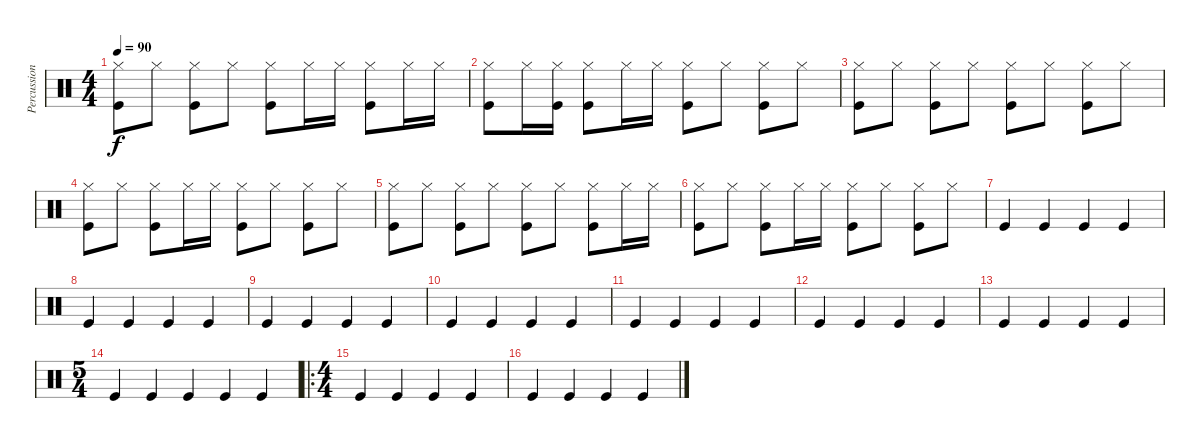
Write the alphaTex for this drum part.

\track ("Percussion" "Percussion") {instrument percussion}
\staff {score}
\articulation defaults
\ts (4 4)
\tempo 90
\clef neutral
\ks c
("Hi-Hat (closed)" "Kick (hit)").8{dy f} "Hi-Hat (closed)".8 ("Hi-Hat (closed)" "Kick (hit)").8 "Hi-Hat (closed)".8 ("Hi-Hat (closed)" "Kick (hit)").8 "Hi-Hat (closed)".16 "Hi-Hat (closed)".16 ("Hi-Hat (closed)" "Kick (hit)").8 "Hi-Hat (closed)".16 "Hi-Hat (closed)".16 |
("Hi-Hat (closed)" "Kick (hit)").8 "Hi-Hat (closed)".16 ("Hi-Hat (closed)" "Kick (hit)").16 ("Hi-Hat (closed)" "Kick (hit)").8 "Hi-Hat (closed)".16 "Hi-Hat (closed)".16 ("Hi-Hat (closed)" "Kick (hit)").8 "Hi-Hat (closed)".8 ("Hi-Hat (closed)" "Kick (hit)").8 "Hi-Hat (closed)".8 |
("Hi-Hat (closed)" "Kick (hit)").8 "Hi-Hat (closed)".8 ("Hi-Hat (closed)" "Kick (hit)").8 "Hi-Hat (closed)".8 ("Hi-Hat (closed)" "Kick (hit)").8 "Hi-Hat (closed)".8 ("Hi-Hat (closed)" "Kick (hit)").8 "Hi-Hat (closed)".8 |
("Hi-Hat (closed)" "Kick (hit)").8 "Hi-Hat (closed)".8 ("Hi-Hat (closed)" "Kick (hit)").8 "Hi-Hat (closed)".16 "Hi-Hat (closed)".16 ("Hi-Hat (closed)" "Kick (hit)").8 "Hi-Hat (closed)".8 ("Hi-Hat (closed)" "Kick (hit)").8 "Hi-Hat (closed)".8 |
("Hi-Hat (closed)" "Kick (hit)").8 "Hi-Hat (closed)".8 ("Hi-Hat (closed)" "Kick (hit)").8 "Hi-Hat (closed)".8 ("Hi-Hat (closed)" "Kick (hit)").8 "Hi-Hat (closed)".8 ("Hi-Hat (closed)" "Kick (hit)").8 "Hi-Hat (closed)".16 "Hi-Hat (closed)".16 |
("Hi-Hat (closed)" "Kick (hit)").8 "Hi-Hat (closed)".8 ("Hi-Hat (closed)" "Kick (hit)").8 "Hi-Hat (closed)".16 "Hi-Hat (closed)".16 ("Hi-Hat (closed)" "Kick (hit)").8 "Hi-Hat (closed)".8 ("Hi-Hat (closed)" "Kick (hit)").8 "Hi-Hat (closed)".8 |
"Kick (hit)".4 "Kick (hit)".4 "Kick (hit)".4 "Kick (hit)".4 |
"Kick (hit)".4 "Kick (hit)".4 "Kick (hit)".4 "Kick (hit)".4 |
"Kick (hit)".4 "Kick (hit)".4 "Kick (hit)".4 "Kick (hit)".4 |
"Kick (hit)".4 "Kick (hit)".4 "Kick (hit)".4 "Kick (hit)".4 |
"Kick (hit)".4 "Kick (hit)".4 "Kick (hit)".4 "Kick (hit)".4 |
"Kick (hit)".4 "Kick (hit)".4 "Kick (hit)".4 "Kick (hit)".4 |
"Kick (hit)".4 "Kick (hit)".4 "Kick (hit)".4 "Kick (hit)".4 |
\ts (5 4)
"Kick (hit)".4 "Kick (hit)".4 "Kick (hit)".4 "Kick (hit)".4 "Kick (hit)".4 |
\ro
\ts (4 4)
"Kick (hit)".4 "Kick (hit)".4 "Kick (hit)".4 "Kick (hit)".4 |
"Kick (hit)".4 "Kick (hit)".4 "Kick (hit)".4 "Kick (hit)".4
